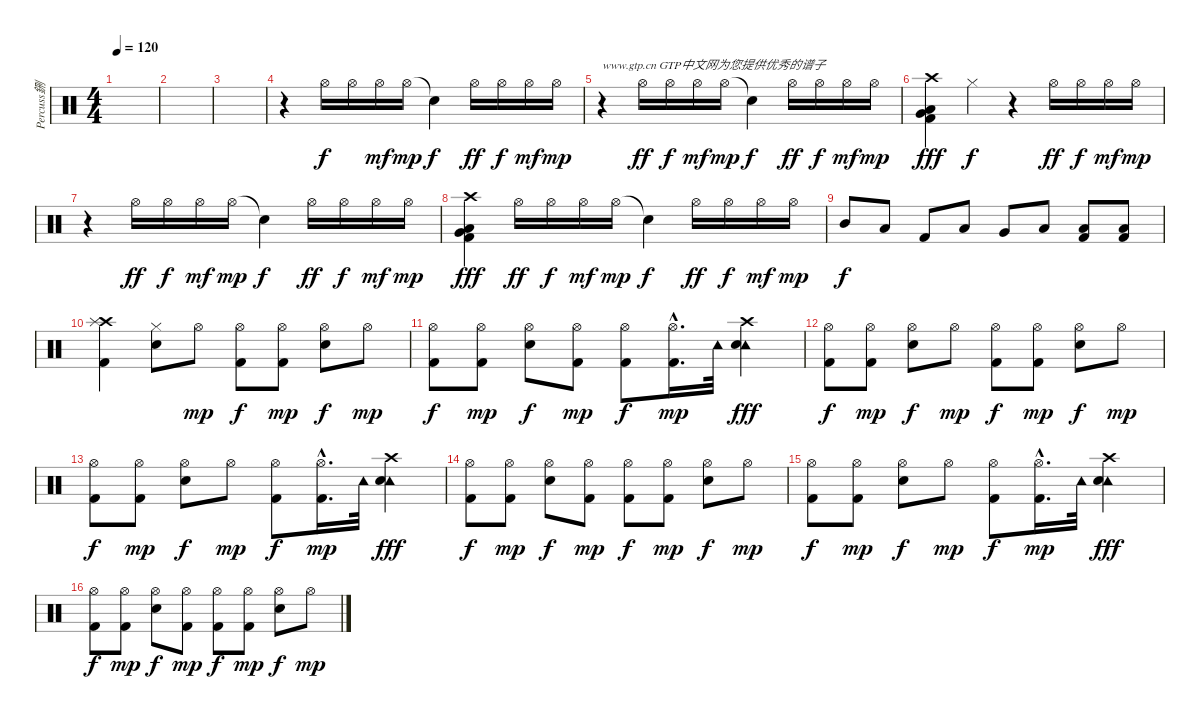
\track ("Percuss鉶" "Percuss鉶") {instrument percussion}
\staff {score}
\articulation defaults
\ts (4 4)
\tempo 120
\clef neutral
\ks c
|
|
|
r.4 "Hi-Hat (open)".16 "Hi-Hat (open)".16{dy f} "Hi-Hat (open)".16{dy mf} "Hi-Hat (open)".16{dy mp} "Snare (hit)"{t}.4{dy f} "Hi-Hat (open)".16{dy ff} "Hi-Hat (open)".16{dy f} "Hi-Hat (open)".16{dy mf} "Hi-Hat (open)".16{dy mp} |
r.4{txt "www.gtp.cn GTP中文网为您提供优秀的谱子"} "Hi-Hat (open)".16{dy ff} "Hi-Hat (open)".16{dy f} "Hi-Hat (open)".16{dy mf} "Hi-Hat (open)".16{dy mp} "Snare (hit)"{t}.4{dy f} "Hi-Hat (open)".16{dy ff} "Hi-Hat (open)".16{dy f} "Hi-Hat (open)".16{dy mf} "Hi-Hat (open)".16{dy mp} |
("Crash high (hit)" "Low Tom (hit)" "Very Low Tom (hit)" "Kick (hit) 2").4{dy fff} "Hi-Hat (closed)".4{dy f} r.4 "Hi-Hat (open)".16{dy ff} "Hi-Hat (open)".16{dy f} "Hi-Hat (open)".16{dy mf} "Hi-Hat (open)".16{dy mp} |
r.4 "Hi-Hat (open)".16{dy ff} "Hi-Hat (open)".16{dy f} "Hi-Hat (open)".16{dy mf} "Hi-Hat (open)".16{dy mp} "Snare (hit)"{t}.4{dy f} "Hi-Hat (open)".16{dy ff} "Hi-Hat (open)".16{dy f} "Hi-Hat (open)".16{dy mf} "Hi-Hat (open)".16{dy mp} |
("Crash high (hit)" "Very Low Tom (hit)" "Low Tom (hit)" "Kick (hit) 2").4{dy fff} "Hi-Hat (open)".16{dy ff} "Hi-Hat (open)".16{dy f} "Hi-Hat (open)".16{dy mf} "Hi-Hat (open)".16{dy mp} "Snare (hit)"{t}.4{dy f} "Hi-Hat (open)".16{dy ff} "Hi-Hat (open)".16{dy f} "Hi-Hat (open)".16{dy mf} "Hi-Hat (open)".16{dy mp} |
"Mid Tom (hit)".8{dy f} "Low Tom (hit)".8 "Kick (hit) 2".8 "Low Tom (hit)".8 "Very Low Tom (hit)".8 "Low Floor Tom (hit)".8 ("Low Floor Tom (hit)" "Kick (hit) 2").8 ("Low Floor Tom (hit)" "Kick (hit) 2").8 |
("Crash high (hit)" "Splash (hit)" "Kick (hit) 2").4 ("Hi-Hat (closed)" "Snare (hit) 2").8 "Hi-Hat (open)".8{dy mp} ("Hi-Hat (open)" "Kick (hit) 2").8{dy f} ("Hi-Hat (open)" "Kick (hit) 2").8{dy mp} ("Hi-Hat (open)" "Snare (hit) 2").8{dy f} "Hi-Hat (open)".8{dy mp} |
("Hi-Hat (open)" "Kick (hit) 2").8{dy f} ("Hi-Hat (open)" "Kick (hit) 2").8{dy mp} ("Hi-Hat (open)" "Snare (hit) 2").8{dy f} ("Hi-Hat (open)" "Kick (hit) 2").8{dy mp} ("Hi-Hat (open)" "Kick (hit) 2").8{dy f} ("Hi-Hat (open)"{hac} "Kick (hit) 2"{hac}).16{d dy mp} "Tambourine (hit)".32 ("Crash high (hit)" "Tambourine (hit)" "Snare (hit) 2").4{dy fff} |
("Hi-Hat (open)" "Kick (hit) 2").8{dy f} ("Hi-Hat (open)" "Kick (hit) 2").8{dy mp} ("Hi-Hat (open)" "Snare (hit) 2").8{dy f} "Hi-Hat (open)".8{dy mp} ("Hi-Hat (open)" "Kick (hit) 2").8{dy f} ("Hi-Hat (open)" "Kick (hit) 2").8{dy mp} ("Hi-Hat (open)" "Snare (hit) 2").8{dy f} "Hi-Hat (open)".8{dy mp} |
("Hi-Hat (open)" "Kick (hit) 2").8{dy f} ("Hi-Hat (open)" "Kick (hit) 2").8{dy mp} ("Hi-Hat (open)" "Snare (hit) 2").8{dy f} "Hi-Hat (open)".8{dy mp} ("Hi-Hat (open)" "Kick (hit) 2").8{dy f} ("Hi-Hat (open)"{hac} "Kick (hit) 2"{hac}).16{d dy mp} "Tambourine (hit)".32 ("Crash high (hit)" "Tambourine (hit)" "Snare (hit) 2").4{dy fff} |
("Hi-Hat (open)" "Kick (hit) 2").8{dy f} ("Hi-Hat (open)" "Kick (hit) 2").8{dy mp} ("Hi-Hat (open)" "Snare (hit) 2").8{dy f} ("Hi-Hat (open)" "Kick (hit) 2").8{dy mp} ("Hi-Hat (open)" "Kick (hit) 2").8{dy f} ("Hi-Hat (open)" "Kick (hit) 2").8{dy mp} ("Hi-Hat (open)" "Snare (hit) 2").8{dy f} "Hi-Hat (open)".8{dy mp} |
("Hi-Hat (open)" "Kick (hit) 2").8{dy f} ("Hi-Hat (open)" "Kick (hit) 2").8{dy mp} ("Hi-Hat (open)" "Snare (hit) 2").8{dy f} "Hi-Hat (open)".8{dy mp} ("Hi-Hat (open)" "Kick (hit) 2").8{dy f} ("Hi-Hat (open)"{hac} "Kick (hit) 2"{hac}).16{d dy mp} "Tambourine (hit)".32 ("Crash high (hit)" "Tambourine (hit)" "Snare (hit) 2").4{dy fff} |
("Hi-Hat (open)" "Kick (hit) 2").8{dy f} ("Hi-Hat (open)" "Kick (hit) 2").8{dy mp} ("Hi-Hat (open)" "Snare (hit) 2").8{dy f} ("Hi-Hat (open)" "Kick (hit) 2").8{dy mp} ("Hi-Hat (open)" "Kick (hit) 2").8{dy f} ("Hi-Hat (open)" "Kick (hit) 2").8{dy mp} ("Hi-Hat (open)" "Snare (hit) 2").8{dy f} "Hi-Hat (open)".8{dy mp}
